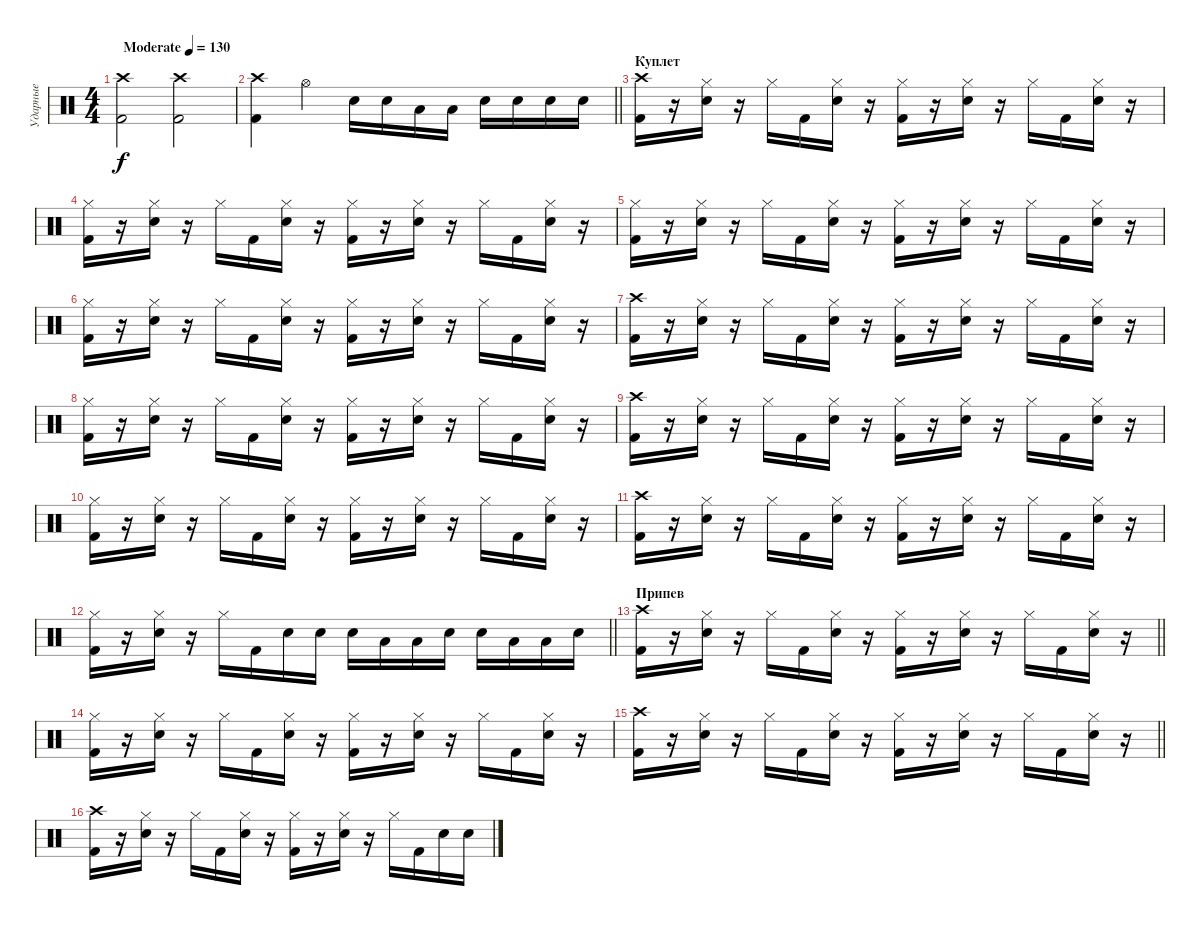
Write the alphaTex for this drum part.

\track ("Ударные" "Ударные") {instrument percussion}
\staff {score}
\articulation defaults
\ts (4 4)
\tempo (130 "Moderate")
\clef neutral
\ks c
("Kick (hit) 2" "Crash high (hit)").2{dy f} ("Kick (hit) 2" "Crash high (hit)").2 |
\barLineRight lightlight
("Kick (hit) 2" "Crash high (hit)").4 "Hi-Hat (open)".4 "Electric Snare (hit)".16 "Electric Snare (hit)".16 "Low Tom (hit)".16 "Low Tom (hit)".16 "Electric Snare (hit)".16 "Electric Snare (hit)".16 "Electric Snare (hit)".16 "Electric Snare (hit)".16 |
\section ("" "Куплет")
("Kick (hit) 2" "Crash high (hit)").16 r.16 ("Electric Snare (hit)" "Hi-Hat (closed)").16 r.16 "Hi-Hat (closed)".16 "Kick (hit) 2".16 ("Electric Snare (hit)" "Hi-Hat (closed)").16 r.16 ("Kick (hit) 2" "Hi-Hat (closed)").16 r.16 ("Electric Snare (hit)" "Hi-Hat (closed)").16 r.16 "Hi-Hat (closed)".16 "Kick (hit) 2".16 ("Electric Snare (hit)" "Hi-Hat (closed)").16 r.16 |
("Kick (hit) 2" "Hi-Hat (closed)").16 r.16 ("Electric Snare (hit)" "Hi-Hat (closed)").16 r.16 "Hi-Hat (closed)".16 "Kick (hit) 2".16 ("Electric Snare (hit)" "Hi-Hat (closed)").16 r.16 ("Kick (hit) 2" "Hi-Hat (closed)").16 r.16 ("Electric Snare (hit)" "Hi-Hat (closed)").16 r.16 "Hi-Hat (closed)".16 "Kick (hit) 2".16 ("Electric Snare (hit)" "Hi-Hat (closed)").16 r.16 |
("Kick (hit) 2" "Hi-Hat (closed)").16 r.16 ("Electric Snare (hit)" "Hi-Hat (closed)").16 r.16 "Hi-Hat (closed)".16 "Kick (hit) 2".16 ("Electric Snare (hit)" "Hi-Hat (closed)").16 r.16 ("Kick (hit) 2" "Hi-Hat (closed)").16 r.16 ("Electric Snare (hit)" "Hi-Hat (closed)").16 r.16 "Hi-Hat (closed)".16 "Kick (hit) 2".16 ("Electric Snare (hit)" "Hi-Hat (closed)").16 r.16 |
("Kick (hit) 2" "Hi-Hat (closed)").16 r.16 ("Electric Snare (hit)" "Hi-Hat (closed)").16 r.16 "Hi-Hat (closed)".16 "Kick (hit) 2".16 ("Electric Snare (hit)" "Hi-Hat (closed)").16 r.16 ("Kick (hit) 2" "Hi-Hat (closed)").16 r.16 ("Electric Snare (hit)" "Hi-Hat (closed)").16 r.16 "Hi-Hat (closed)".16 "Kick (hit) 2".16 ("Electric Snare (hit)" "Hi-Hat (closed)").16 r.16 |
("Kick (hit) 2" "Crash high (hit)").16 r.16 ("Electric Snare (hit)" "Hi-Hat (closed)").16 r.16 "Hi-Hat (closed)".16 "Kick (hit) 2".16 ("Electric Snare (hit)" "Hi-Hat (closed)").16 r.16 ("Kick (hit) 2" "Hi-Hat (closed)").16 r.16 ("Electric Snare (hit)" "Hi-Hat (closed)").16 r.16 "Hi-Hat (closed)".16 "Kick (hit) 2".16 ("Electric Snare (hit)" "Hi-Hat (closed)").16 r.16 |
("Kick (hit) 2" "Hi-Hat (closed)").16 r.16 ("Electric Snare (hit)" "Hi-Hat (closed)").16 r.16 "Hi-Hat (closed)".16 "Kick (hit) 2".16 ("Electric Snare (hit)" "Hi-Hat (closed)").16 r.16 ("Kick (hit) 2" "Hi-Hat (closed)").16 r.16 ("Electric Snare (hit)" "Hi-Hat (closed)").16 r.16 "Hi-Hat (closed)".16 "Kick (hit) 2".16 ("Electric Snare (hit)" "Hi-Hat (closed)").16 r.16 |
("Kick (hit) 2" "Crash high (hit)").16 r.16 ("Electric Snare (hit)" "Hi-Hat (closed)").16 r.16 "Hi-Hat (closed)".16 "Kick (hit) 2".16 ("Electric Snare (hit)" "Hi-Hat (closed)").16 r.16 ("Kick (hit) 2" "Hi-Hat (closed)").16 r.16 ("Electric Snare (hit)" "Hi-Hat (closed)").16 r.16 "Hi-Hat (closed)".16 "Kick (hit) 2".16 ("Electric Snare (hit)" "Hi-Hat (closed)").16 r.16 |
("Kick (hit) 2" "Hi-Hat (closed)").16 r.16 ("Electric Snare (hit)" "Hi-Hat (closed)").16 r.16 "Hi-Hat (closed)".16 "Kick (hit) 2".16 ("Electric Snare (hit)" "Hi-Hat (closed)").16 r.16 ("Kick (hit) 2" "Hi-Hat (closed)").16 r.16 ("Electric Snare (hit)" "Hi-Hat (closed)").16 r.16 "Hi-Hat (closed)".16 "Kick (hit) 2".16 ("Electric Snare (hit)" "Hi-Hat (closed)").16 r.16 |
("Kick (hit) 2" "Crash high (hit)").16 r.16 ("Electric Snare (hit)" "Hi-Hat (closed)").16 r.16 "Hi-Hat (closed)".16 "Kick (hit) 2".16 ("Electric Snare (hit)" "Hi-Hat (closed)").16 r.16 ("Kick (hit) 2" "Hi-Hat (closed)").16 r.16 ("Electric Snare (hit)" "Hi-Hat (closed)").16 r.16 "Hi-Hat (closed)".16 "Kick (hit) 2".16 ("Electric Snare (hit)" "Hi-Hat (closed)").16 r.16 |
\barLineRight lightlight
("Kick (hit) 2" "Hi-Hat (closed)").16 r.16 ("Electric Snare (hit)" "Hi-Hat (closed)").16 r.16 "Hi-Hat (closed)".16 "Kick (hit) 2".16 "Electric Snare (hit)".16 "Electric Snare (hit)".16 "Electric Snare (hit)".16 "Low Tom (hit)".16 "Low Tom (hit)".16 "Electric Snare (hit)".16 "Electric Snare (hit)".16 "Low Tom (hit)".16 "Low Tom (hit)".16 "Electric Snare (hit)".16 |
\section ("" "Припев")
\barLineRight lightlight
("Kick (hit) 2" "Crash high (hit)").16 r.16 ("Electric Snare (hit)" "Hi-Hat (closed)").16 r.16 "Hi-Hat (closed)".16 "Kick (hit) 2".16 ("Electric Snare (hit)" "Hi-Hat (closed)").16 r.16 ("Kick (hit) 2" "Hi-Hat (closed)").16 r.16 ("Electric Snare (hit)" "Hi-Hat (closed)").16 r.16 "Hi-Hat (closed)".16 "Kick (hit) 2".16 ("Electric Snare (hit)" "Hi-Hat (closed)").16 r.16 |
\section ("" "")
("Kick (hit) 2" "Hi-Hat (closed)").16 r.16 ("Electric Snare (hit)" "Hi-Hat (closed)").16 r.16 "Hi-Hat (closed)".16 "Kick (hit) 2".16 ("Electric Snare (hit)" "Hi-Hat (closed)").16 r.16 ("Kick (hit) 2" "Hi-Hat (closed)").16 r.16 ("Electric Snare (hit)" "Hi-Hat (closed)").16 r.16 "Hi-Hat (closed)".16 "Kick (hit) 2".16 ("Electric Snare (hit)" "Hi-Hat (closed)").16 r.16 |
\barLineRight lightlight
("Kick (hit) 2" "Crash high (hit)").16 r.16 ("Electric Snare (hit)" "Hi-Hat (closed)").16 r.16 "Hi-Hat (closed)".16 "Kick (hit) 2".16 ("Electric Snare (hit)" "Hi-Hat (closed)").16 r.16 ("Kick (hit) 2" "Hi-Hat (closed)").16 r.16 ("Electric Snare (hit)" "Hi-Hat (closed)").16 r.16 "Hi-Hat (closed)".16 "Kick (hit) 2".16 ("Electric Snare (hit)" "Hi-Hat (closed)").16 r.16 |
("Kick (hit) 2" "Crash high (hit)").16 r.16 ("Electric Snare (hit)" "Hi-Hat (closed)").16 r.16 "Hi-Hat (closed)".16 "Kick (hit) 2".16 ("Electric Snare (hit)" "Hi-Hat (closed)").16 r.16 ("Kick (hit) 2" "Hi-Hat (closed)").16 r.16 ("Electric Snare (hit)" "Hi-Hat (closed)").16 r.16 "Hi-Hat (closed)".16 "Kick (hit) 2".16 "Electric Snare (hit)".16 "Electric Snare (hit)".16
